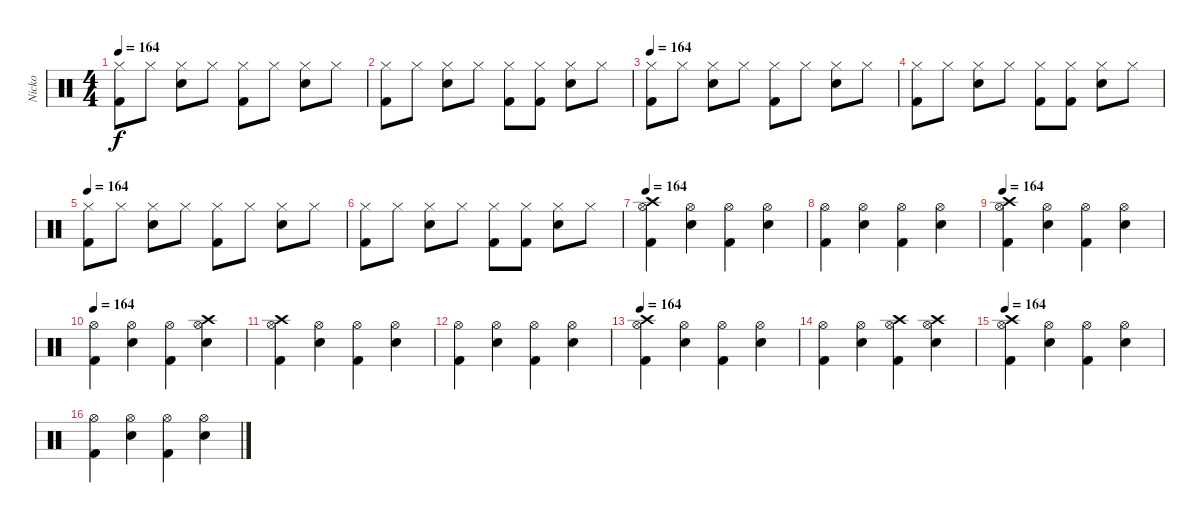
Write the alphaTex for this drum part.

\track ("Nicko" "Nicko") {instrument percussion}
\staff {score}
\articulation defaults
\ts (4 4)
\tempo 164
\clef neutral
\ks c
("Hi-Hat (closed)" "Kick (hit) 2").8{dy f} "Hi-Hat (closed)".8 ("Hi-Hat (closed)" "Snare (hit) 2").8 "Hi-Hat (closed)".8 ("Hi-Hat (closed)" "Kick (hit) 2").8 "Hi-Hat (closed)".8 ("Hi-Hat (closed)" "Snare (hit) 2").8 "Hi-Hat (closed)".8 |
("Hi-Hat (closed)" "Kick (hit) 2").8 "Hi-Hat (closed)".8 ("Hi-Hat (closed)" "Snare (hit) 2").8 "Hi-Hat (closed)".8 ("Hi-Hat (closed)" "Kick (hit) 2").8 ("Hi-Hat (closed)" "Kick (hit) 2").8 ("Hi-Hat (closed)" "Snare (hit) 2").8 "Hi-Hat (closed)".8 |
\tempo 164
("Hi-Hat (closed)" "Kick (hit) 2").8 "Hi-Hat (closed)".8 ("Hi-Hat (closed)" "Snare (hit) 2").8 "Hi-Hat (closed)".8 ("Hi-Hat (closed)" "Kick (hit) 2").8 "Hi-Hat (closed)".8 ("Hi-Hat (closed)" "Snare (hit) 2").8 "Hi-Hat (closed)".8 |
("Hi-Hat (closed)" "Kick (hit) 2").8 "Hi-Hat (closed)".8 ("Hi-Hat (closed)" "Snare (hit) 2").8 "Hi-Hat (closed)".8 ("Hi-Hat (closed)" "Kick (hit) 2").8 ("Hi-Hat (closed)" "Kick (hit) 2").8 ("Hi-Hat (closed)" "Snare (hit) 2").8 "Hi-Hat (closed)".8 |
\tempo 164
("Hi-Hat (closed)" "Kick (hit) 2").8 "Hi-Hat (closed)".8 ("Hi-Hat (closed)" "Snare (hit) 2").8 "Hi-Hat (closed)".8 ("Hi-Hat (closed)" "Kick (hit) 2").8 "Hi-Hat (closed)".8 ("Hi-Hat (closed)" "Snare (hit) 2").8 "Hi-Hat (closed)".8 |
("Hi-Hat (closed)" "Kick (hit) 2").8 "Hi-Hat (closed)".8 ("Hi-Hat (closed)" "Snare (hit) 2").8 "Hi-Hat (closed)".8 ("Hi-Hat (closed)" "Kick (hit) 2").8 ("Hi-Hat (closed)" "Kick (hit) 2").8 ("Hi-Hat (closed)" "Snare (hit) 2").8 "Hi-Hat (closed)".8 |
\tempo 164
("Hi-Hat (open)" "Crash high (hit)" "Kick (hit) 2").4 ("Hi-Hat (open)" "Snare (hit) 2").4 ("Hi-Hat (open)" "Kick (hit) 2").4 ("Hi-Hat (open)" "Snare (hit) 2").4 |
("Hi-Hat (open)" "Kick (hit) 2").4 ("Hi-Hat (open)" "Snare (hit) 2").4 ("Hi-Hat (open)" "Kick (hit) 2").4 ("Hi-Hat (open)" "Snare (hit) 2").4 |
\tempo 164
("Hi-Hat (open)" "Crash high (hit)" "Kick (hit) 2").4 ("Hi-Hat (open)" "Snare (hit) 2").4 ("Hi-Hat (open)" "Kick (hit) 2").4 ("Hi-Hat (open)" "Snare (hit) 2").4 |
\tempo 164
("Hi-Hat (open)" "Kick (hit) 2").4 ("Hi-Hat (open)" "Snare (hit) 2").4 ("Hi-Hat (open)" "Kick (hit) 2").4 ("Hi-Hat (open)" "Snare (hit) 2" "Crash high (hit)").4 |
("Hi-Hat (open)" "Crash high (hit)" "Kick (hit) 2").4 ("Hi-Hat (open)" "Snare (hit) 2").4 ("Hi-Hat (open)" "Kick (hit) 2").4 ("Hi-Hat (open)" "Snare (hit) 2").4 |
("Hi-Hat (open)" "Kick (hit) 2").4 ("Hi-Hat (open)" "Snare (hit) 2").4 ("Hi-Hat (open)" "Kick (hit) 2").4 ("Hi-Hat (open)" "Snare (hit) 2").4 |
\tempo 164
("Hi-Hat (open)" "Crash high (hit)" "Kick (hit) 2").4 ("Hi-Hat (open)" "Snare (hit) 2").4 ("Hi-Hat (open)" "Kick (hit) 2").4 ("Hi-Hat (open)" "Snare (hit) 2").4 |
("Hi-Hat (open)" "Kick (hit) 2").4 ("Hi-Hat (open)" "Snare (hit) 2").4 ("Hi-Hat (open)" "Crash high (hit)" "Kick (hit) 2").4 ("Hi-Hat (open)" "Snare (hit) 2" "Crash high (hit)").4 |
\tempo 164
("Hi-Hat (open)" "Crash high (hit)" "Kick (hit) 2").4 ("Hi-Hat (open)" "Snare (hit) 2").4 ("Hi-Hat (open)" "Kick (hit) 2").4 ("Hi-Hat (open)" "Snare (hit) 2").4 |
("Hi-Hat (open)" "Kick (hit) 2").4 ("Hi-Hat (open)" "Snare (hit) 2").4 ("Hi-Hat (open)" "Kick (hit) 2").4 ("Hi-Hat (open)" "Snare (hit) 2").4
